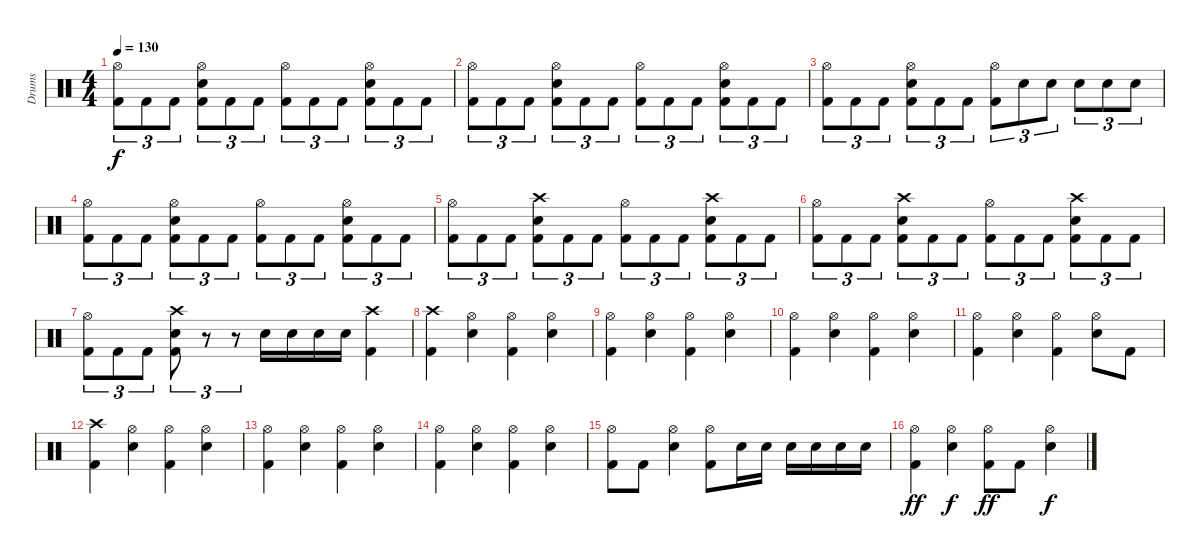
\track ("Drums" "Drums") {instrument percussion}
\staff {score}
\articulation defaults
\ts (4 4)
\tempo 130
\clef neutral
\ks c
("Hi-Hat (open)" "Kick (hit) 2").8{tu (3 2) dy f} "Kick (hit) 2".8{tu (3 2)} "Kick (hit) 2".8{tu (3 2)} ("Hi-Hat (open)" "Snare (hit) 2" "Kick (hit) 2").8{tu (3 2)} "Kick (hit) 2".8{tu (3 2)} "Kick (hit) 2".8{tu (3 2)} ("Hi-Hat (open)" "Kick (hit) 2").8{tu (3 2)} "Kick (hit) 2".8{tu (3 2)} "Kick (hit) 2".8{tu (3 2)} ("Hi-Hat (open)" "Snare (hit) 2" "Kick (hit) 2").8{tu (3 2)} "Kick (hit) 2".8{tu (3 2)} "Kick (hit) 2".8{tu (3 2)} |
("Hi-Hat (open)" "Kick (hit) 2").8{tu (3 2)} "Kick (hit) 2".8{tu (3 2)} "Kick (hit) 2".8{tu (3 2)} ("Hi-Hat (open)" "Snare (hit) 2" "Kick (hit) 2").8{tu (3 2)} "Kick (hit) 2".8{tu (3 2)} "Kick (hit) 2".8{tu (3 2)} ("Hi-Hat (open)" "Kick (hit) 2").8{tu (3 2)} "Kick (hit) 2".8{tu (3 2)} "Kick (hit) 2".8{tu (3 2)} ("Hi-Hat (open)" "Snare (hit) 2" "Kick (hit) 2").8{tu (3 2)} "Kick (hit) 2".8{tu (3 2)} "Kick (hit) 2".8{tu (3 2)} |
("Hi-Hat (open)" "Kick (hit) 2").8{tu (3 2)} "Kick (hit) 2".8{tu (3 2)} "Kick (hit) 2".8{tu (3 2)} ("Hi-Hat (open)" "Snare (hit) 2" "Kick (hit) 2").8{tu (3 2)} "Kick (hit) 2".8{tu (3 2)} "Kick (hit) 2".8{tu (3 2)} ("Hi-Hat (open)" "Kick (hit) 2").8{tu (3 2)} "Snare (hit) 2".8{tu (3 2)} "Snare (hit) 2".8{tu (3 2)} "Snare (hit) 2".8{tu (3 2)} "Snare (hit) 2".8{tu (3 2)} "Snare (hit) 2".8{tu (3 2)} |
("Hi-Hat (open)" "Kick (hit) 2").8{tu (3 2)} "Kick (hit) 2".8{tu (3 2)} "Kick (hit) 2".8{tu (3 2)} ("Hi-Hat (open)" "Snare (hit) 2" "Kick (hit) 2").8{tu (3 2)} "Kick (hit) 2".8{tu (3 2)} "Kick (hit) 2".8{tu (3 2)} ("Hi-Hat (open)" "Kick (hit) 2").8{tu (3 2)} "Kick (hit) 2".8{tu (3 2)} "Kick (hit) 2".8{tu (3 2)} ("Hi-Hat (open)" "Snare (hit) 2" "Kick (hit) 2").8{tu (3 2)} "Kick (hit) 2".8{tu (3 2)} "Kick (hit) 2".8{tu (3 2)} |
("Hi-Hat (open)" "Kick (hit) 2").8{tu (3 2)} "Kick (hit) 2".8{tu (3 2)} "Kick (hit) 2".8{tu (3 2)} ("Crash high (hit)" "Snare (hit) 2" "Kick (hit) 2").8{tu (3 2)} "Kick (hit) 2".8{tu (3 2)} "Kick (hit) 2".8{tu (3 2)} ("Hi-Hat (open)" "Kick (hit) 2").8{tu (3 2)} "Kick (hit) 2".8{tu (3 2)} "Kick (hit) 2".8{tu (3 2)} ("Crash high (hit)" "Snare (hit) 2" "Kick (hit) 2").8{tu (3 2)} "Kick (hit) 2".8{tu (3 2)} "Kick (hit) 2".8{tu (3 2)} |
("Hi-Hat (open)" "Kick (hit) 2").8{tu (3 2)} "Kick (hit) 2".8{tu (3 2)} "Kick (hit) 2".8{tu (3 2)} ("Crash high (hit)" "Snare (hit) 2" "Kick (hit) 2").8{tu (3 2)} "Kick (hit) 2".8{tu (3 2)} "Kick (hit) 2".8{tu (3 2)} ("Hi-Hat (open)" "Kick (hit) 2").8{tu (3 2)} "Kick (hit) 2".8{tu (3 2)} "Kick (hit) 2".8{tu (3 2)} ("Crash high (hit)" "Snare (hit) 2" "Kick (hit) 2").8{tu (3 2)} "Kick (hit) 2".8{tu (3 2)} "Kick (hit) 2".8{tu (3 2)} |
("Hi-Hat (open)" "Kick (hit) 2").8{tu (3 2)} "Kick (hit) 2".8{tu (3 2)} "Kick (hit) 2".8{tu (3 2)} ("Crash high (hit)" "Snare (hit) 2" "Kick (hit) 2").8{tu (3 2)} r.8{tu (3 2)} r.8{tu (3 2)} "Snare (hit) 2".16 "Snare (hit) 2".16 "Snare (hit) 2".16 "Snare (hit) 2".16 ("Crash high (hit)" "Kick (hit) 2").4 |
("Crash high (hit)" "Kick (hit) 2").4 ("Hi-Hat (open)" "Snare (hit) 2").4 ("Hi-Hat (open)" "Kick (hit) 2").4 ("Hi-Hat (open)" "Snare (hit) 2").4 |
("Hi-Hat (open)" "Kick (hit) 2").4 ("Hi-Hat (open)" "Snare (hit) 2").4 ("Hi-Hat (open)" "Kick (hit) 2").4 ("Hi-Hat (open)" "Snare (hit) 2").4 |
("Hi-Hat (open)" "Kick (hit) 2").4 ("Hi-Hat (open)" "Snare (hit) 2").4 ("Hi-Hat (open)" "Kick (hit) 2").4 ("Hi-Hat (open)" "Snare (hit) 2").4 |
("Hi-Hat (open)" "Kick (hit) 2").4 ("Hi-Hat (open)" "Snare (hit) 2").4 ("Hi-Hat (open)" "Kick (hit) 2").4 ("Hi-Hat (open)" "Snare (hit) 2").8 "Kick (hit) 2".8 |
("Crash high (hit)" "Kick (hit) 2").4 ("Hi-Hat (open)" "Snare (hit) 2").4 ("Hi-Hat (open)" "Kick (hit) 2").4 ("Hi-Hat (open)" "Snare (hit) 2").4 |
("Hi-Hat (open)" "Kick (hit) 2").4 ("Hi-Hat (open)" "Snare (hit) 2").4 ("Hi-Hat (open)" "Kick (hit) 2").4 ("Hi-Hat (open)" "Snare (hit) 2").4 |
("Hi-Hat (open)" "Kick (hit) 2").4 ("Hi-Hat (open)" "Snare (hit) 2").4 ("Hi-Hat (open)" "Kick (hit) 2").4 ("Hi-Hat (open)" "Snare (hit) 2").4 |
("Hi-Hat (open)" "Kick (hit) 2").8 "Kick (hit) 2".8 ("Hi-Hat (open)" "Snare (hit) 2").4 ("Hi-Hat (open)" "Kick (hit) 2").8 "Snare (hit) 2".16 "Snare (hit) 2".16 "Snare (hit) 2".16 "Snare (hit) 2".16 "Snare (hit) 2".16 "Snare (hit) 2".16 |
("Hi-Hat (open)" "Kick (hit) 2").4{dy ff} ("Hi-Hat (open)" "Snare (hit) 2").4{dy f} ("Hi-Hat (open)" "Kick (hit) 2").8{dy ff} "Kick (hit) 2".8 ("Hi-Hat (open)" "Snare (hit) 2").4{dy f}
